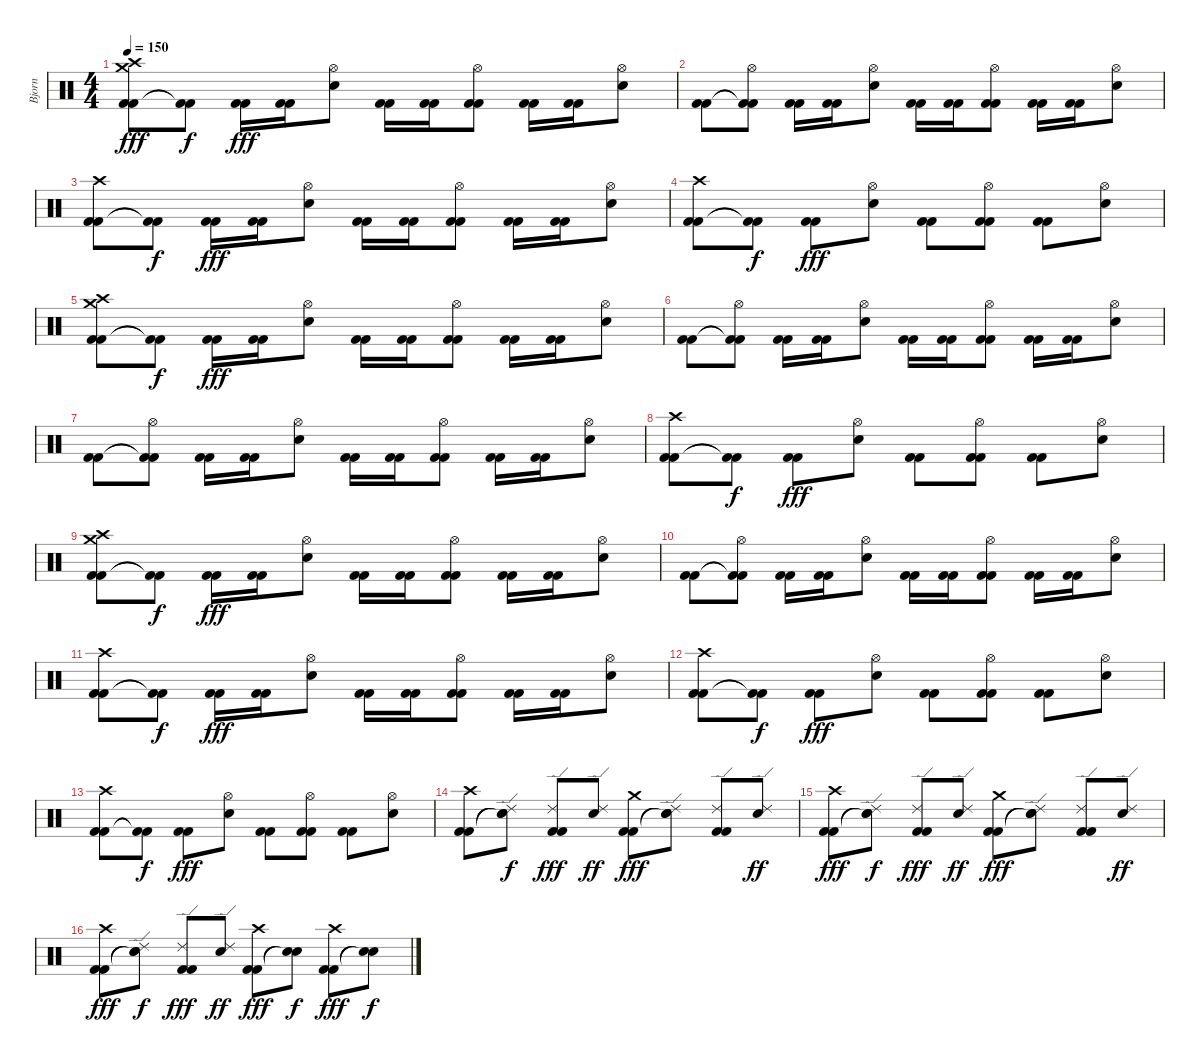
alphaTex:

\track ("Bjorn" "Bjorn") {instrument percussion}
\staff {score}
\articulation defaults
\ts (4 4)
\tempo 150
\clef neutral
\ks c
("Kick (hit) 2" "Kick (hit) 2" "Crash high (hit)" "Crash medium (hit)").8{dy fff} ("Kick (hit) 2"{t} "Kick (hit) 2"{t}).8{dy f} ("Kick (hit) 2" "Kick (hit) 2").16{dy fff} ("Kick (hit) 2" "Kick (hit) 2").16 ("Snare (hit) 2" "Hi-Hat (open)").8 ("Kick (hit) 2" "Kick (hit) 2").16 ("Kick (hit) 2" "Kick (hit) 2").16 ("Kick (hit) 2" "Kick (hit) 2" "Hi-Hat (open)").8 ("Kick (hit) 2" "Kick (hit) 2").16 ("Kick (hit) 2" "Kick (hit) 2").16 ("Snare (hit) 2" "Hi-Hat (open)").8 |
("Kick (hit) 2" "Kick (hit) 2").8 ("Kick (hit) 2"{t} "Kick (hit) 2"{t} "Hi-Hat (open)").8 ("Kick (hit) 2" "Kick (hit) 2").16 ("Kick (hit) 2" "Kick (hit) 2").16 ("Snare (hit) 2" "Hi-Hat (open)").8 ("Kick (hit) 2" "Kick (hit) 2").16 ("Kick (hit) 2" "Kick (hit) 2").16 ("Kick (hit) 2" "Kick (hit) 2" "Hi-Hat (open)").8 ("Kick (hit) 2" "Kick (hit) 2").16 ("Kick (hit) 2" "Kick (hit) 2").16 ("Snare (hit) 2" "Hi-Hat (open)").8 |
("Kick (hit) 2" "Kick (hit) 2" "Crash high (hit)").8 ("Kick (hit) 2"{t} "Kick (hit) 2"{t}).8{dy f} ("Kick (hit) 2" "Kick (hit) 2").16{dy fff} ("Kick (hit) 2" "Kick (hit) 2").16 ("Snare (hit) 2" "Hi-Hat (open)").8 ("Kick (hit) 2" "Kick (hit) 2").16 ("Kick (hit) 2" "Kick (hit) 2").16 ("Kick (hit) 2" "Kick (hit) 2" "Hi-Hat (open)").8 ("Kick (hit) 2" "Kick (hit) 2").16 ("Kick (hit) 2" "Kick (hit) 2").16 ("Snare (hit) 2" "Hi-Hat (open)").8 |
("Kick (hit) 2" "Kick (hit) 2" "Crash high (hit)").8 ("Kick (hit) 2"{t} "Kick (hit) 2"{t}).8{dy f} ("Kick (hit) 2" "Kick (hit) 2").8{dy fff} ("Snare (hit) 2" "Hi-Hat (open)").8 ("Kick (hit) 2" "Kick (hit) 2").8 ("Kick (hit) 2" "Kick (hit) 2" "Hi-Hat (open)").8 ("Kick (hit) 2" "Kick (hit) 2").8 ("Snare (hit) 2" "Hi-Hat (open)").8 |
("Kick (hit) 2" "Kick (hit) 2" "Crash high (hit)" "Crash medium (hit)").8 ("Kick (hit) 2"{t} "Kick (hit) 2"{t}).8{dy f} ("Kick (hit) 2" "Kick (hit) 2").16{dy fff} ("Kick (hit) 2" "Kick (hit) 2").16 ("Snare (hit) 2" "Hi-Hat (open)").8 ("Kick (hit) 2" "Kick (hit) 2").16 ("Kick (hit) 2" "Kick (hit) 2").16 ("Kick (hit) 2" "Kick (hit) 2" "Hi-Hat (open)").8 ("Kick (hit) 2" "Kick (hit) 2").16 ("Kick (hit) 2" "Kick (hit) 2").16 ("Snare (hit) 2" "Hi-Hat (open)").8 |
("Kick (hit) 2" "Kick (hit) 2").8 ("Kick (hit) 2"{t} "Kick (hit) 2"{t} "Hi-Hat (open)").8 ("Kick (hit) 2" "Kick (hit) 2").16 ("Kick (hit) 2" "Kick (hit) 2").16 ("Snare (hit) 2" "Hi-Hat (open)").8 ("Kick (hit) 2" "Kick (hit) 2").16 ("Kick (hit) 2" "Kick (hit) 2").16 ("Kick (hit) 2" "Kick (hit) 2" "Hi-Hat (open)").8 ("Kick (hit) 2" "Kick (hit) 2").16 ("Kick (hit) 2" "Kick (hit) 2").16 ("Snare (hit) 2" "Hi-Hat (open)").8 |
("Kick (hit) 2" "Kick (hit) 2").8 ("Kick (hit) 2"{t} "Kick (hit) 2"{t} "Hi-Hat (open)").8 ("Kick (hit) 2" "Kick (hit) 2").16 ("Kick (hit) 2" "Kick (hit) 2").16 ("Snare (hit) 2" "Hi-Hat (open)").8 ("Kick (hit) 2" "Kick (hit) 2").16 ("Kick (hit) 2" "Kick (hit) 2").16 ("Kick (hit) 2" "Kick (hit) 2" "Hi-Hat (open)").8 ("Kick (hit) 2" "Kick (hit) 2").16 ("Kick (hit) 2" "Kick (hit) 2").16 ("Snare (hit) 2" "Hi-Hat (open)").8 |
("Kick (hit) 2" "Kick (hit) 2" "Crash high (hit)").8 ("Kick (hit) 2"{t} "Kick (hit) 2"{t}).8{dy f} ("Kick (hit) 2" "Kick (hit) 2").8{dy fff} ("Snare (hit) 2" "Hi-Hat (open)").8 ("Kick (hit) 2" "Kick (hit) 2").8 ("Kick (hit) 2" "Kick (hit) 2" "Hi-Hat (open)").8 ("Kick (hit) 2" "Kick (hit) 2").8 ("Snare (hit) 2" "Hi-Hat (open)").8 |
("Kick (hit) 2" "Kick (hit) 2" "Crash high (hit)" "Crash medium (hit)").8 ("Kick (hit) 2"{t} "Kick (hit) 2"{t}).8{dy f} ("Kick (hit) 2" "Kick (hit) 2").16{dy fff} ("Kick (hit) 2" "Kick (hit) 2").16 ("Snare (hit) 2" "Hi-Hat (open)").8 ("Kick (hit) 2" "Kick (hit) 2").16 ("Kick (hit) 2" "Kick (hit) 2").16 ("Kick (hit) 2" "Kick (hit) 2" "Hi-Hat (open)").8 ("Kick (hit) 2" "Kick (hit) 2").16 ("Kick (hit) 2" "Kick (hit) 2").16 ("Snare (hit) 2" "Hi-Hat (open)").8 |
("Kick (hit) 2" "Kick (hit) 2").8 ("Kick (hit) 2"{t} "Kick (hit) 2"{t} "Hi-Hat (open)").8 ("Kick (hit) 2" "Kick (hit) 2").16 ("Kick (hit) 2" "Kick (hit) 2").16 ("Snare (hit) 2" "Hi-Hat (open)").8 ("Kick (hit) 2" "Kick (hit) 2").16 ("Kick (hit) 2" "Kick (hit) 2").16 ("Kick (hit) 2" "Kick (hit) 2" "Hi-Hat (open)").8 ("Kick (hit) 2" "Kick (hit) 2").16 ("Kick (hit) 2" "Kick (hit) 2").16 ("Snare (hit) 2" "Hi-Hat (open)").8 |
("Kick (hit) 2" "Kick (hit) 2" "Crash high (hit)").8 ("Kick (hit) 2"{t} "Kick (hit) 2"{t}).8{dy f} ("Kick (hit) 2" "Kick (hit) 2").16{dy fff} ("Kick (hit) 2" "Kick (hit) 2").16 ("Snare (hit) 2" "Hi-Hat (open)").8 ("Kick (hit) 2" "Kick (hit) 2").16 ("Kick (hit) 2" "Kick (hit) 2").16 ("Kick (hit) 2" "Kick (hit) 2" "Hi-Hat (open)").8 ("Kick (hit) 2" "Kick (hit) 2").16 ("Kick (hit) 2" "Kick (hit) 2").16 ("Snare (hit) 2" "Hi-Hat (open)").8 |
("Kick (hit) 2" "Kick (hit) 2" "Crash high (hit)").8 ("Kick (hit) 2"{t} "Kick (hit) 2"{t}).8{dy f} ("Kick (hit) 2" "Kick (hit) 2").8{dy fff} ("Snare (hit) 2" "Hi-Hat (open)").8 ("Kick (hit) 2" "Kick (hit) 2").8 ("Kick (hit) 2" "Kick (hit) 2" "Hi-Hat (open)").8 ("Kick (hit) 2" "Kick (hit) 2").8 ("Snare (hit) 2" "Hi-Hat (open)").8 |
("Kick (hit) 2" "Kick (hit) 2" "Crash high (hit)").8 ("Kick (hit) 2"{t} "Kick (hit) 2"{t}).8{dy f} ("Kick (hit) 2" "Kick (hit) 2").8{dy fff} ("Snare (hit) 2" "Hi-Hat (open)").8 ("Kick (hit) 2" "Kick (hit) 2").8 ("Kick (hit) 2" "Kick (hit) 2" "Hi-Hat (open)").8 ("Kick (hit) 2" "Kick (hit) 2").8 ("Snare (hit) 2" "Hi-Hat (open)").8 |
("Kick (hit) 2" "Kick (hit) 2" "Crash high (hit)").8 ("Snare (hit)"{t} "Snare (hit)"{t} "Ride (edge) 2").8{dy f} ("Kick (hit) 2" "Kick (hit) 2" "Ride (edge) 2").8{dy fff} ("Snare (hit) 2" "Ride (edge) 2").8{dy ff} ("Kick (hit) 2" "Kick (hit) 2" "Crash medium (hit)").8{dy fff} ("Snare (hit)"{t} "Snare (hit)"{t} "Ride (edge) 2").8 ("Kick (hit) 2" "Kick (hit) 2" "Ride (edge) 2").8 ("Snare (hit) 2" "Ride (edge) 2").8{dy ff} |
("Kick (hit) 2" "Kick (hit) 2" "Crash high (hit)").8{dy fff} ("Snare (hit)"{t} "Snare (hit)"{t} "Ride (edge) 2").8{dy f} ("Kick (hit) 2" "Kick (hit) 2" "Ride (edge) 2").8{dy fff} ("Snare (hit) 2" "Ride (edge) 2").8{dy ff} ("Kick (hit) 2" "Kick (hit) 2" "Crash medium (hit)").8{dy fff} ("Snare (hit)"{t} "Snare (hit)"{t} "Ride (edge) 2").8 ("Kick (hit) 2" "Kick (hit) 2" "Ride (edge) 2").8 ("Snare (hit) 2" "Ride (edge) 2").8{dy ff} |
("Kick (hit) 2" "Kick (hit) 2" "Crash high (hit)").8{dy fff} ("Snare (hit)"{t} "Snare (hit)"{t} "Ride (edge) 2").8{dy f} ("Kick (hit) 2" "Kick (hit) 2" "Ride (edge) 2").8{dy fff} ("Snare (hit) 2" "Ride (edge) 2").8{dy ff} ("Kick (hit) 2" "Kick (hit) 2" "Crash high (hit)").8{dy fff} ("Snare (hit)"{t} "Snare (hit)"{t}).8{dy f} ("Kick (hit) 2" "Kick (hit) 2" "Crash high (hit)").8{dy fff} ("Snare (hit)"{t} "Snare (hit)"{t}).8{dy f}
